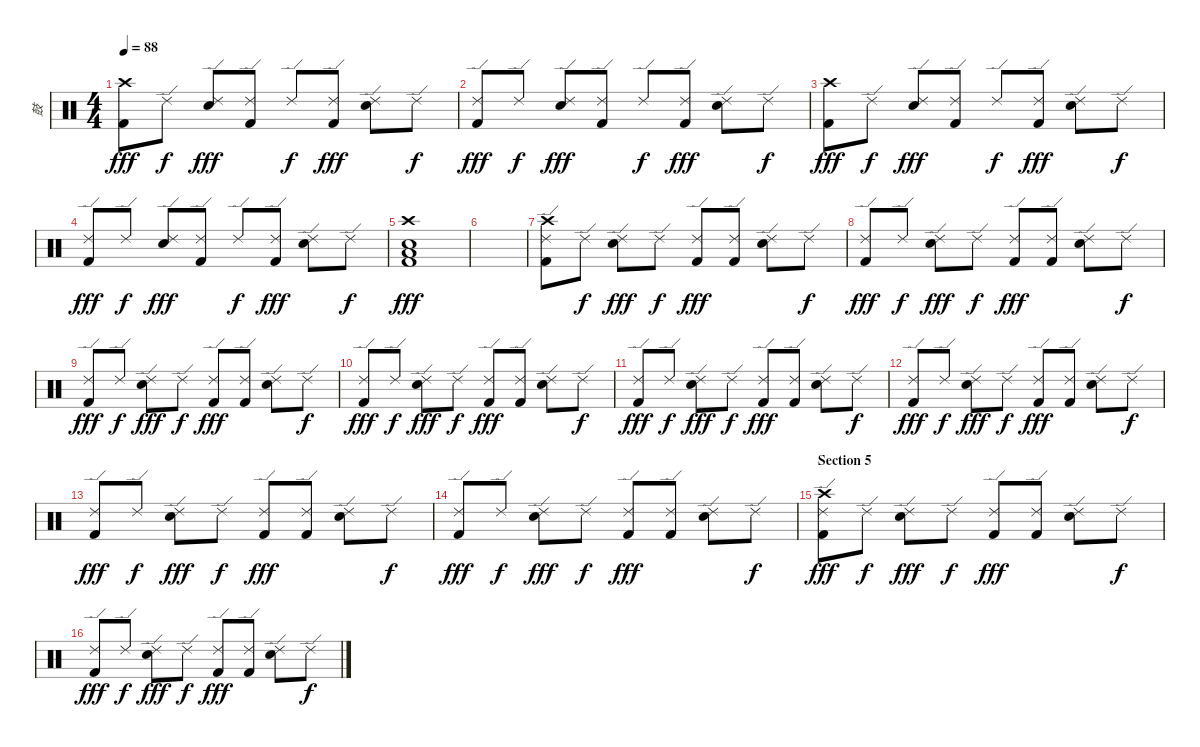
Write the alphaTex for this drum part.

\track ("鼓" "鼓") {instrument percussion}
\staff {score}
\articulation defaults
\ts (4 4)
\tempo 88
\clef neutral
\ks c
("Crash high (hit)" "Kick (hit) 2").8{dy fff} "Ride (edge) 2".8{dy f} ("Ride (edge) 2" "Snare (hit) 2").8{dy fff} ("Ride (edge) 2" "Kick (hit) 2").8 "Ride (edge) 2".8{dy f} ("Ride (edge) 2" "Kick (hit) 2").8{dy fff} ("Ride (edge) 2" "Snare (hit) 2").8 "Ride (edge) 2".8{dy f} |
("Ride (edge) 2" "Kick (hit) 2").8{dy fff} "Ride (edge) 2".8{dy f} ("Ride (edge) 2" "Snare (hit) 2").8{dy fff} ("Ride (edge) 2" "Kick (hit) 2").8 "Ride (edge) 2".8{dy f} ("Ride (edge) 2" "Kick (hit) 2").8{dy fff} ("Ride (edge) 2" "Snare (hit) 2").8 "Ride (edge) 2".8{dy f} |
("Crash high (hit)" "Kick (hit) 2").8{dy fff} "Ride (edge) 2".8{dy f} ("Ride (edge) 2" "Snare (hit) 2").8{dy fff} ("Ride (edge) 2" "Kick (hit) 2").8 "Ride (edge) 2".8{dy f} ("Ride (edge) 2" "Kick (hit) 2").8{dy fff} ("Ride (edge) 2" "Snare (hit) 2").8 "Ride (edge) 2".8{dy f} |
("Ride (edge) 2" "Kick (hit) 2").8{dy fff} "Ride (edge) 2".8{dy f} ("Ride (edge) 2" "Snare (hit) 2").8{dy fff} ("Ride (edge) 2" "Kick (hit) 2").8 "Ride (edge) 2".8{dy f} ("Ride (edge) 2" "Kick (hit) 2").8{dy fff} ("Ride (edge) 2" "Snare (hit) 2").8 "Ride (edge) 2".8{dy f} |
("Crash high (hit)" "Low Tom (hit)" "Snare (hit) 2" "Kick (hit) 2").1{dy fff} |
|
("Ride (edge) 2" "Crash high (hit)" "Kick (hit) 2").8 "Ride (edge) 2".8{dy f} ("Ride (edge) 2" "Snare (hit) 2").8{dy fff} "Ride (edge) 2".8{dy f} ("Ride (edge) 2" "Kick (hit) 2").8{dy fff} ("Ride (edge) 2" "Kick (hit) 2").8 ("Ride (edge) 2" "Snare (hit) 2").8 "Ride (edge) 2".8{dy f} |
("Ride (edge) 2" "Kick (hit) 2").8{dy fff} "Ride (edge) 2".8{dy f} ("Ride (edge) 2" "Snare (hit) 2").8{dy fff} "Ride (edge) 2".8{dy f} ("Ride (edge) 2" "Kick (hit) 2").8{dy fff} ("Ride (edge) 2" "Kick (hit) 2").8 ("Ride (edge) 2" "Snare (hit) 2").8 "Ride (edge) 2".8{dy f} |
("Ride (edge) 2" "Kick (hit) 2").8{dy fff} "Ride (edge) 2".8{dy f} ("Ride (edge) 2" "Snare (hit) 2").8{dy fff} "Ride (edge) 2".8{dy f} ("Ride (edge) 2" "Kick (hit) 2").8{dy fff} ("Ride (edge) 2" "Kick (hit) 2").8 ("Ride (edge) 2" "Snare (hit) 2").8 "Ride (edge) 2".8{dy f} |
("Ride (edge) 2" "Kick (hit) 2").8{dy fff} "Ride (edge) 2".8{dy f} ("Ride (edge) 2" "Snare (hit) 2").8{dy fff} "Ride (edge) 2".8{dy f} ("Ride (edge) 2" "Kick (hit) 2").8{dy fff} ("Ride (edge) 2" "Kick (hit) 2").8 ("Ride (edge) 2" "Snare (hit) 2").8 "Ride (edge) 2".8{dy f} |
("Ride (edge) 2" "Kick (hit) 2").8{dy fff} "Ride (edge) 2".8{dy f} ("Ride (edge) 2" "Snare (hit) 2").8{dy fff} "Ride (edge) 2".8{dy f} ("Ride (edge) 2" "Kick (hit) 2").8{dy fff} ("Ride (edge) 2" "Kick (hit) 2").8 ("Ride (edge) 2" "Snare (hit) 2").8 "Ride (edge) 2".8{dy f} |
("Ride (edge) 2" "Kick (hit) 2").8{dy fff} "Ride (edge) 2".8{dy f} ("Ride (edge) 2" "Snare (hit) 2").8{dy fff} "Ride (edge) 2".8{dy f} ("Ride (edge) 2" "Kick (hit) 2").8{dy fff} ("Ride (edge) 2" "Kick (hit) 2").8 ("Ride (edge) 2" "Snare (hit) 2").8 "Ride (edge) 2".8{dy f} |
("Ride (edge) 2" "Kick (hit) 2").8{dy fff} "Ride (edge) 2".8{dy f} ("Ride (edge) 2" "Snare (hit) 2").8{dy fff} "Ride (edge) 2".8{dy f} ("Ride (edge) 2" "Kick (hit) 2").8{dy fff} ("Ride (edge) 2" "Kick (hit) 2").8 ("Ride (edge) 2" "Snare (hit) 2").8 "Ride (edge) 2".8{dy f} |
("Ride (edge) 2" "Kick (hit) 2").8{dy fff} "Ride (edge) 2".8{dy f} ("Ride (edge) 2" "Snare (hit) 2").8{dy fff} "Ride (edge) 2".8{dy f} ("Ride (edge) 2" "Kick (hit) 2").8{dy fff} ("Ride (edge) 2" "Kick (hit) 2").8 ("Ride (edge) 2" "Snare (hit) 2").8 "Ride (edge) 2".8{dy f} |
\section ("" "Section 5")
("Ride (edge) 2" "Crash high (hit)" "Kick (hit) 2").8{dy fff} "Ride (edge) 2".8{dy f} ("Ride (edge) 2" "Snare (hit) 2").8{dy fff} "Ride (edge) 2".8{dy f} ("Ride (edge) 2" "Kick (hit) 2").8{dy fff} ("Ride (edge) 2" "Kick (hit) 2").8 ("Ride (edge) 2" "Snare (hit) 2").8 "Ride (edge) 2".8{dy f} |
("Ride (edge) 2" "Kick (hit) 2").8{dy fff} "Ride (edge) 2".8{dy f} ("Ride (edge) 2" "Snare (hit) 2").8{dy fff} "Ride (edge) 2".8{dy f} ("Ride (edge) 2" "Kick (hit) 2").8{dy fff} ("Ride (edge) 2" "Kick (hit) 2").8 ("Ride (edge) 2" "Snare (hit) 2").8 "Ride (edge) 2".8{dy f}
